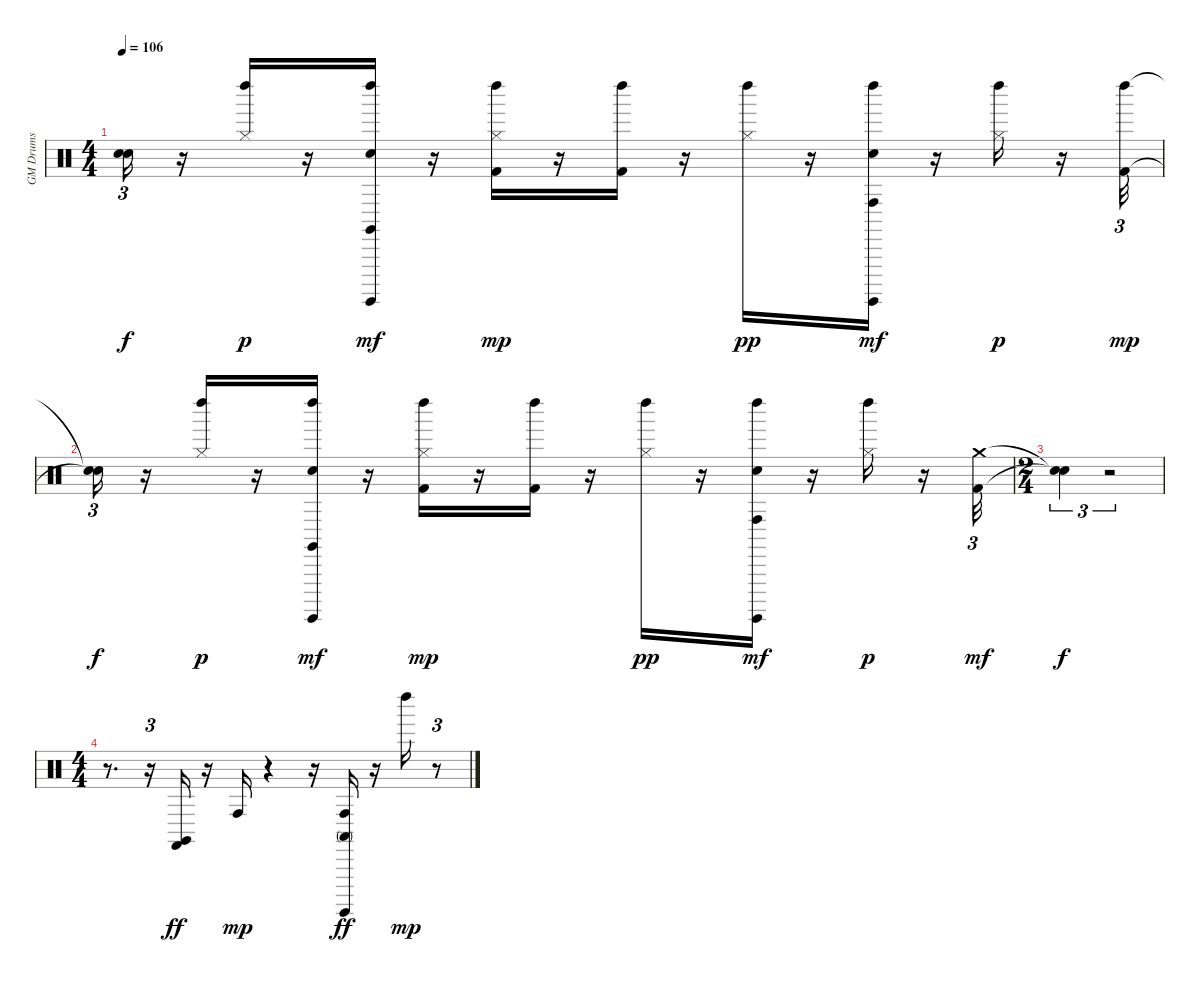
\track ("GM Drums" "GM Drums") {instrument percussion}
\staff {score}
\articulation defaults
\ts (4 4)
\tempo 106
\clef neutral
\ks c
("Snare (hit)"{t} "Snare (hit)"{t}).16{tu (3 2) dy f} r.16 ("Hi-Hat (closed)" "Left Maraca (hit)").16{dy p} r.16 ("Hand Clap (hit)" "Left Maraca (hit)" "Claves (hit)" "Surdo (hit)").16{dy mf} r.16 ("Kick (hit) 2" "Hi-Hat (closed)" "Left Maraca (hit)").16{dy mp} r.16 ("Kick (hit) 2" "Left Maraca (hit)").16 r.16 ("Hi-Hat (closed)" "Left Maraca (hit)").16{dy pp} r.16 ("Hand Clap (hit)" "Conga high (hit)" "Left Maraca (hit)" "Surdo (hit)").16{dy mf} r.16 ("Hi-Hat (closed)" "Left Maraca (hit)").16{dy p} r.16 ("Kick (hit) 2" "Left Maraca (hit)").32{tu (3 2) dy mp} |
("Snare (hit)"{t} "Snare (hit)"{t}).16{tu (3 2) dy f} r.16 ("Hi-Hat (closed)" "Left Maraca (hit)").16{dy p} r.16 ("Hand Clap (hit)" "Left Maraca (hit)" "Claves (hit)" "Surdo (hit)").16{dy mf} r.16 ("Kick (hit) 2" "Hi-Hat (closed)" "Left Maraca (hit)").16{dy mp} r.16 ("Kick (hit) 2" "Left Maraca (hit)").16 r.16 ("Hi-Hat (closed)" "Left Maraca (hit)").16{dy pp} r.16 ("Hand Clap (hit)" "Conga high (hit)" "Left Maraca (hit)" "Surdo (hit)").16{dy mf} r.16 ("Hi-Hat (closed)" "Left Maraca (hit)").16{dy p} r.16 ("Kick (hit) 2" "Crash medium (hit)").32{tu (3 2) dy mf} |
\ts (2 4)
("Snare (hit)"{t} "Snare (hit)"{t}).4{tu (3 2) dy f} r.2{tu (3 2)} |
\ts (4 4)
r.8{d} r.16{tu (3 2)} ("Claves (hit)" "Castanets (hit)").16{dy ff} r.16 "Conga high (hit)".16{dy mp} r.4 r.16 ("Conga high (mute)" "Conga high (hit)" "Surdo (hit)").16{dy ff} r.16 "Left Maraca (hit)".16{dy mp} r.8{tu (3 2)}
